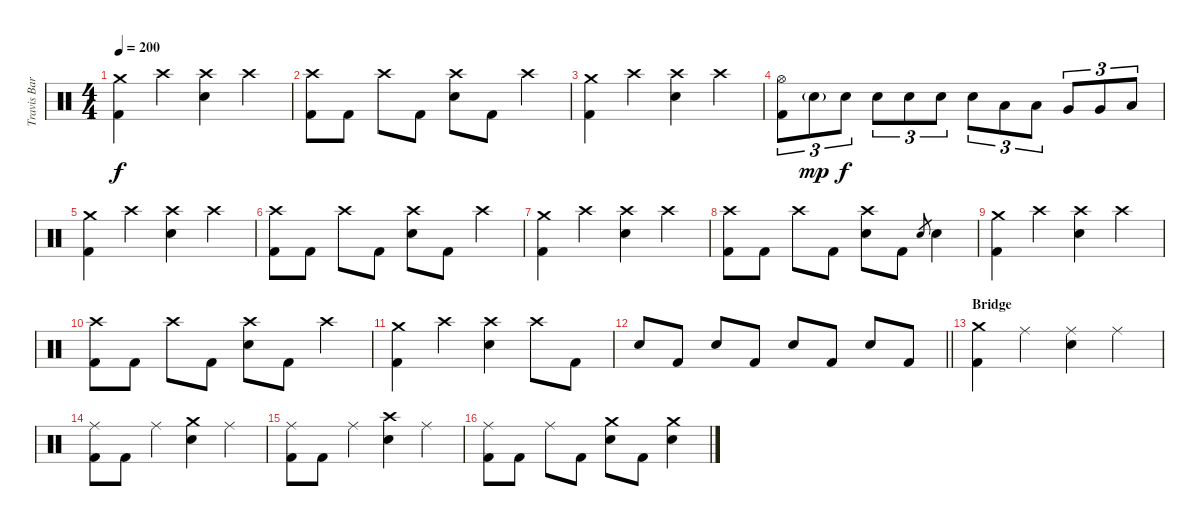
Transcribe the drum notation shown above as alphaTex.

\track ("Travis Barker - Drums" "Travis Bar") {instrument percussion}
\staff {score}
\articulation defaults
\ts (4 4)
\tempo 200
\clef neutral
\ks c
("Crash medium (hit)" "Kick (hit) 2").4{dy f} "Crash high (hit)".4 ("Crash high (hit)" "Electric Snare (hit)").4 "Crash high (hit)".4 |
("Crash high (hit)" "Kick (hit) 2").8 "Kick (hit) 2".8 "Crash high (hit)".8 "Kick (hit) 2".8 ("Crash high (hit)" "Electric Snare (hit)").8 "Kick (hit) 2".8 "Crash high (hit)".4 |
("Crash medium (hit)" "Kick (hit) 2").4 "Crash high (hit)".4 ("Crash high (hit)" "Electric Snare (hit)").4 "Crash high (hit)".4 |
("Hi-Hat (open)" "Kick (hit) 2").8{tu (3 2)} "Electric Snare (hit)"{g}.8{tu (3 2) dy mp} "Electric Snare (hit)".8{tu (3 2) dy f} "Electric Snare (hit)".8{tu (3 2)} "Electric Snare (hit)".8{tu (3 2)} "Electric Snare (hit)".8{tu (3 2)} "Electric Snare (hit)".8{tu (3 2)} "Low Tom (hit)".8{tu (3 2)} "Low Tom (hit)".8{tu (3 2)} "Very Low Tom (hit)".8{tu (3 2)} "Very Low Tom (hit)".8{tu (3 2)} "Low Floor Tom (hit)".8{tu (3 2)} |
("Crash medium (hit)" "Kick (hit) 2").4 "Crash high (hit)".4 ("Crash high (hit)" "Electric Snare (hit)").4 "Crash high (hit)".4 |
("Crash high (hit)" "Kick (hit) 2").8 "Kick (hit) 2".8 "Crash high (hit)".8 "Kick (hit) 2".8 ("Crash high (hit)" "Electric Snare (hit)").8 "Kick (hit) 2".8 "Crash high (hit)".4 |
("Crash medium (hit)" "Kick (hit) 2").4 "Crash high (hit)".4 ("Crash high (hit)" "Electric Snare (hit)").4 "Crash high (hit)".4 |
("Crash high (hit)" "Kick (hit) 2").8 "Kick (hit) 2".8 "Crash high (hit)".8 "Kick (hit) 2".8 ("Crash high (hit)" "Electric Snare (hit)").8 "Kick (hit) 2".8 "Electric Snare (hit)".8{gr} "Electric Snare (hit)".4 |
("Crash medium (hit)" "Kick (hit) 2").4 "Crash high (hit)".4 ("Crash high (hit)" "Electric Snare (hit)").4 "Crash high (hit)".4 |
("Crash high (hit)" "Kick (hit) 2").8 "Kick (hit) 2".8 "Crash high (hit)".8 "Kick (hit) 2".8 ("Crash high (hit)" "Electric Snare (hit)").8 "Kick (hit) 2".8 "Crash high (hit)".4 |
("Crash medium (hit)" "Kick (hit) 2").4 "Crash high (hit)".4 ("Crash high (hit)" "Electric Snare (hit)").4 "Crash high (hit)".8 "Kick (hit) 2".8 |
\barLineRight lightlight "Electric Snare (hit)".8 "Kick (hit) 2".8 "Electric Snare (hit)".8 "Kick (hit) 2".8 "Electric Snare (hit)".8 "Kick (hit) 2".8 "Electric Snare (hit)".8 "Kick (hit) 2".8
|
\section ("" "Bridge")
("Crash medium (hit)" "Kick (hit) 2").4 "Ride (middle)".4 ("Ride (middle)" "Electric Snare (hit)").4 "Ride (middle)".4 |
("Ride (middle)" "Kick (hit) 2").8 "Kick (hit) 2".8 "Ride (middle)".4 ("Crash medium (hit)" "Electric Snare (hit)").4 "Ride (middle)".4 |
("Ride (middle)" "Kick (hit) 2").8 "Kick (hit) 2".8 "Ride (middle)".4 ("Crash high (hit)" "Electric Snare (hit)").4 "Ride (middle)".4 |
("Ride (middle)" "Kick (hit) 2").8 "Kick (hit) 2".8 "Ride (middle)".8 "Kick (hit) 2".8 ("Crash medium (hit)" "Electric Snare (hit)").8 "Kick (hit) 2".8 ("Crash medium (hit)" "Electric Snare (hit)").4
